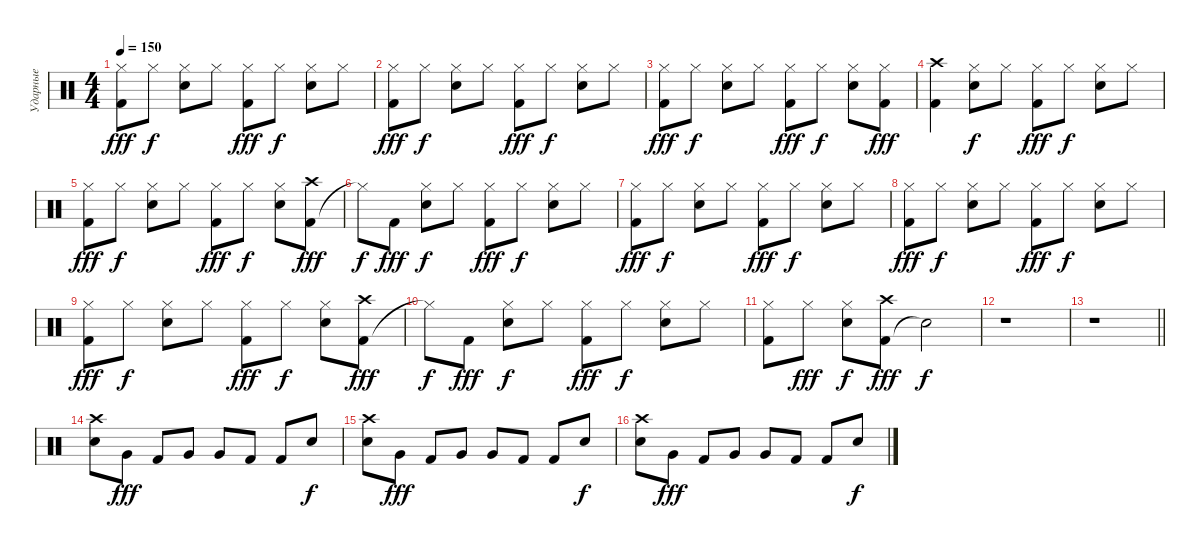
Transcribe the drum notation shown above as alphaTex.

\track ("Ударные" "Ударные") {instrument percussion}
\staff
\articulation defaults
\ts (4 4)
\tempo 150
\clef neutral
\ks c
("Kick (hit) 2" "Hi-Hat (closed)").8{dy fff} "Hi-Hat (closed)".8{dy f} ("Snare (hit) 2" "Hi-Hat (closed)").8 "Hi-Hat (closed)".8 ("Kick (hit) 2" "Hi-Hat (closed)").8{dy fff} "Hi-Hat (closed)".8{dy f} ("Snare (hit) 2" "Hi-Hat (closed)").8 "Hi-Hat (closed)".8 |
("Kick (hit) 2" "Hi-Hat (closed)").8{dy fff} "Hi-Hat (closed)".8{dy f} ("Snare (hit) 2" "Hi-Hat (closed)").8 "Hi-Hat (closed)".8 ("Kick (hit) 2" "Hi-Hat (closed)").8{dy fff} "Hi-Hat (closed)".8{dy f} ("Snare (hit) 2" "Hi-Hat (closed)").8 "Hi-Hat (closed)".8 |
("Kick (hit) 2" "Hi-Hat (closed)").8{dy fff} "Hi-Hat (closed)".8{dy f} ("Snare (hit) 2" "Hi-Hat (closed)").8 "Hi-Hat (closed)".8 ("Kick (hit) 2" "Hi-Hat (closed)").8{dy fff} "Hi-Hat (closed)".8{dy f} ("Snare (hit) 2" "Hi-Hat (closed)").8 ("Kick (hit) 2" "Hi-Hat (closed)").8{dy fff} |
("Kick (hit) 2" "Crash high (hit)").4 ("Snare (hit) 2" "Hi-Hat (closed)").8{dy f} "Hi-Hat (closed)".8 ("Kick (hit) 2" "Hi-Hat (closed)").8{dy fff} "Hi-Hat (closed)".8{dy f} ("Snare (hit) 2" "Hi-Hat (closed)").8 "Hi-Hat (closed)".8 |
("Kick (hit) 2" "Hi-Hat (closed)").8{dy fff} "Hi-Hat (closed)".8{dy f} ("Snare (hit) 2" "Hi-Hat (closed)").8 "Hi-Hat (closed)".8 ("Kick (hit) 2" "Hi-Hat (closed)").8{dy fff} "Hi-Hat (closed)".8{dy f} ("Snare (hit) 2" "Hi-Hat (closed)").8 ("Kick (hit) 2" "Crash high (hit)").8{dy fff} |
"Hi-Hat (closed)"{t}.8{dy f} "Kick (hit) 2".8{dy fff} ("Snare (hit) 2" "Hi-Hat (closed)").8{dy f} "Hi-Hat (closed)".8 ("Kick (hit) 2" "Hi-Hat (closed)").8{dy fff} "Hi-Hat (closed)".8{dy f} ("Snare (hit) 2" "Hi-Hat (closed)").8 "Hi-Hat (closed)".8 |
("Kick (hit) 2" "Hi-Hat (closed)").8{dy fff} "Hi-Hat (closed)".8{dy f} ("Snare (hit) 2" "Hi-Hat (closed)").8 "Hi-Hat (closed)".8 ("Kick (hit) 2" "Hi-Hat (closed)").8{dy fff} "Hi-Hat (closed)".8{dy f} ("Snare (hit) 2" "Hi-Hat (closed)").8 "Hi-Hat (closed)".8 |
("Kick (hit) 2" "Hi-Hat (closed)").8{dy fff} "Hi-Hat (closed)".8{dy f} ("Snare (hit) 2" "Hi-Hat (closed)").8 "Hi-Hat (closed)".8 ("Kick (hit) 2" "Hi-Hat (closed)").8{dy fff} "Hi-Hat (closed)".8{dy f} ("Snare (hit) 2" "Hi-Hat (closed)").8 "Hi-Hat (closed)".8 |
("Kick (hit) 2" "Hi-Hat (closed)").8{dy fff} "Hi-Hat (closed)".8{dy f} ("Snare (hit) 2" "Hi-Hat (closed)").8 "Hi-Hat (closed)".8 ("Kick (hit) 2" "Hi-Hat (closed)").8{dy fff} "Hi-Hat (closed)".8{dy f} ("Snare (hit) 2" "Hi-Hat (closed)").8 ("Kick (hit) 2" "Crash high (hit)").8{dy fff} |
"Hi-Hat (closed)"{t}.8{dy f} "Kick (hit) 2".8{dy fff} ("Snare (hit) 2" "Hi-Hat (closed)").8{dy f} "Hi-Hat (closed)".8 ("Kick (hit) 2" "Hi-Hat (closed)").8{dy fff} "Hi-Hat (closed)".8{dy f} ("Snare (hit) 2" "Hi-Hat (closed)").8 "Hi-Hat (closed)".8 |
("Kick (hit) 2" "Hi-Hat (closed)").8 "Hi-Hat (closed)".8{dy fff} ("Snare (hit) 2" "Hi-Hat (closed)").8{dy f} ("Kick (hit) 2" "Crash high (hit)").8{dy fff} "Snare (hit)"{t}.2{dy f} |
r.1 |
\barLineRight lightlight
r.1 |
("Snare (hit) 2" "Crash high (hit)").8 "Very Low Tom (hit)".8{dy fff} "Kick (hit) 2".8 "Very Low Tom (hit)".8 "Very Low Tom (hit)".8 "Kick (hit) 2".8 "Kick (hit) 2".8 "Snare (hit) 2".8{dy f} |
("Snare (hit) 2" "Crash high (hit)").8 "Very Low Tom (hit)".8{dy fff} "Kick (hit) 2".8 "Very Low Tom (hit)".8 "Very Low Tom (hit)".8 "Kick (hit) 2".8 "Kick (hit) 2".8 "Snare (hit) 2".8{dy f} |
("Snare (hit) 2" "Crash high (hit)").8 "Very Low Tom (hit)".8{dy fff} "Kick (hit) 2".8 "Very Low Tom (hit)".8 "Very Low Tom (hit)".8 "Kick (hit) 2".8 "Kick (hit) 2".8 "Snare (hit) 2".8{dy f}
